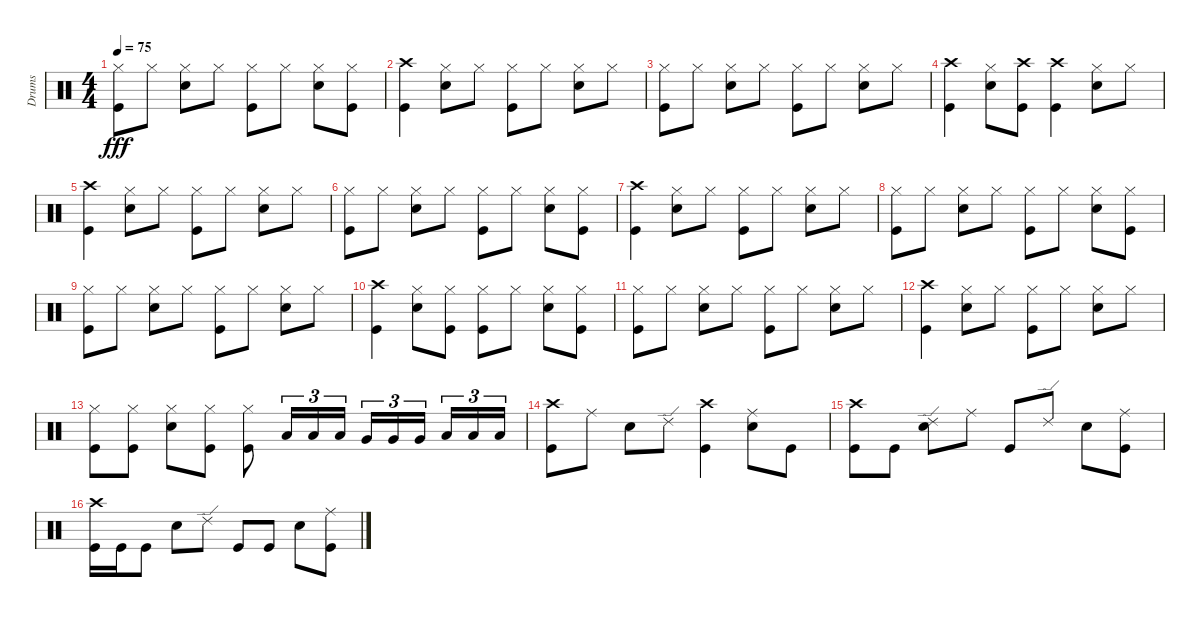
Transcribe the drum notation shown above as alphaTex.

\track ("Drums" "Drums") {instrument percussion}
\staff {score}
\articulation defaults
\ts (4 4)
\tempo 75
\clef neutral
\ks c
("Hi-Hat (closed)" "Kick (hit)").8{dy fff} "Hi-Hat (closed)".8 ("Hi-Hat (closed)" "Snare (hit) 2").8 "Hi-Hat (closed)".8 ("Hi-Hat (closed)" "Kick (hit)").8 "Hi-Hat (closed)".8 ("Hi-Hat (closed)" "Snare (hit) 2").8 ("Hi-Hat (closed)" "Kick (hit)").8 |
("Crash high (hit)" "Kick (hit)").4 ("Hi-Hat (closed)" "Snare (hit) 2").8 "Hi-Hat (closed)".8 ("Hi-Hat (closed)" "Kick (hit)").8 "Hi-Hat (closed)".8 ("Hi-Hat (closed)" "Snare (hit) 2").8 "Hi-Hat (closed)".8 |
("Hi-Hat (closed)" "Kick (hit)").8 "Hi-Hat (closed)".8 ("Hi-Hat (closed)" "Snare (hit) 2").8 "Hi-Hat (closed)".8 ("Hi-Hat (closed)" "Kick (hit)").8 "Hi-Hat (closed)".8 ("Hi-Hat (closed)" "Snare (hit) 2").8 "Hi-Hat (closed)".8 |
("Crash high (hit)" "Kick (hit)").4 ("Hi-Hat (closed)" "Snare (hit) 2").8 ("Crash high (hit)" "Kick (hit)").8 ("Crash high (hit)" "Kick (hit)").4 ("Hi-Hat (closed)" "Snare (hit) 2").8 "Hi-Hat (closed)".8 |
("Crash high (hit)" "Kick (hit)").4 ("Hi-Hat (closed)" "Snare (hit) 2").8 "Hi-Hat (closed)".8 ("Hi-Hat (closed)" "Kick (hit)").8 "Hi-Hat (closed)".8 ("Hi-Hat (closed)" "Snare (hit) 2").8 "Hi-Hat (closed)".8 |
("Hi-Hat (closed)" "Kick (hit)").8 "Hi-Hat (closed)".8 ("Hi-Hat (closed)" "Snare (hit) 2").8 "Hi-Hat (closed)".8 ("Hi-Hat (closed)" "Kick (hit)").8 "Hi-Hat (closed)".8 ("Hi-Hat (closed)" "Snare (hit) 2").8 ("Hi-Hat (closed)" "Kick (hit)").8 |
("Crash high (hit)" "Kick (hit)").4 ("Hi-Hat (closed)" "Snare (hit) 2").8 "Hi-Hat (closed)".8 ("Hi-Hat (closed)" "Kick (hit)").8 "Hi-Hat (closed)".8 ("Hi-Hat (closed)" "Snare (hit) 2").8 "Hi-Hat (closed)".8 |
("Hi-Hat (closed)" "Kick (hit)").8 "Hi-Hat (closed)".8 ("Hi-Hat (closed)" "Snare (hit) 2").8 "Hi-Hat (closed)".8 ("Hi-Hat (closed)" "Kick (hit)").8 "Hi-Hat (closed)".8 ("Hi-Hat (closed)" "Snare (hit) 2").8 ("Hi-Hat (closed)" "Kick (hit)").8 |
("Hi-Hat (closed)" "Kick (hit)").8 "Hi-Hat (closed)".8 ("Hi-Hat (closed)" "Snare (hit) 2").8 "Hi-Hat (closed)".8 ("Hi-Hat (closed)" "Kick (hit)").8 "Hi-Hat (closed)".8 ("Hi-Hat (closed)" "Snare (hit) 2").8 "Hi-Hat (closed)".8 |
("Crash high (hit)" "Kick (hit)").4 ("Hi-Hat (closed)" "Snare (hit) 2").8 ("Hi-Hat (closed)" "Kick (hit)").8 ("Hi-Hat (closed)" "Kick (hit)").8 "Hi-Hat (closed)".8 ("Hi-Hat (closed)" "Snare (hit) 2").8 ("Hi-Hat (closed)" "Kick (hit)").8 |
("Hi-Hat (closed)" "Kick (hit)").8 "Hi-Hat (closed)".8 ("Hi-Hat (closed)" "Snare (hit) 2").8 "Hi-Hat (closed)".8 ("Hi-Hat (closed)" "Kick (hit)").8 "Hi-Hat (closed)".8 ("Hi-Hat (closed)" "Snare (hit) 2").8 "Hi-Hat (closed)".8 |
("Crash high (hit)" "Kick (hit)").4 ("Hi-Hat (closed)" "Snare (hit) 2").8 "Hi-Hat (closed)".8 ("Hi-Hat (closed)" "Kick (hit)").8 "Hi-Hat (closed)".8 ("Hi-Hat (closed)" "Snare (hit) 2").8 "Hi-Hat (closed)".8 |
("Hi-Hat (closed)" "Kick (hit)").8 ("Hi-Hat (closed)" "Kick (hit)").8 ("Hi-Hat (closed)" "Snare (hit) 2").8 ("Hi-Hat (closed)" "Kick (hit)").8 ("Hi-Hat (closed)" "Kick (hit)").8 "Low Tom (hit)".16{tu (3 2)} "Low Tom (hit)".16{tu (3 2)} "Low Tom (hit)".16{tu (3 2)} "Very Low Tom (hit)".16{tu (3 2)} "Very Low Tom (hit)".16{tu (3 2)} "Very Low Tom (hit)".16{tu (3 2) beam splitsecondary} "Low Floor Tom (hit)".16{tu (3 2)} "Low Floor Tom (hit)".16{tu (3 2)} "Low Floor Tom (hit)".16{tu (3 2)} |
("Crash high (hit)" "Kick (hit)").8 "Ride (middle)".8 "Snare (hit) 2".8 "Ride (edge) 2".8 ("Crash high (hit)" "Kick (hit)").4 ("Ride (middle)" "Snare (hit) 2").8 "Kick (hit)".8 |
("Crash high (hit)" "Kick (hit)").8 "Kick (hit)".8 ("Ride (edge) 2" "Snare (hit) 2").8 "Ride (middle)".8 "Kick (hit)".8 "Ride (edge) 2".8 "Snare (hit) 2".8 ("Ride (middle)" "Kick (hit)").8 |
("Crash high (hit)" "Kick (hit)").16 "Kick (hit)".16 "Kick (hit)".8 "Snare (hit) 2".8 "Ride (edge) 2".8 "Kick (hit)".8 "Kick (hit)".8 "Snare (hit) 2".8 ("Ride (middle)" "Kick (hit)").8
